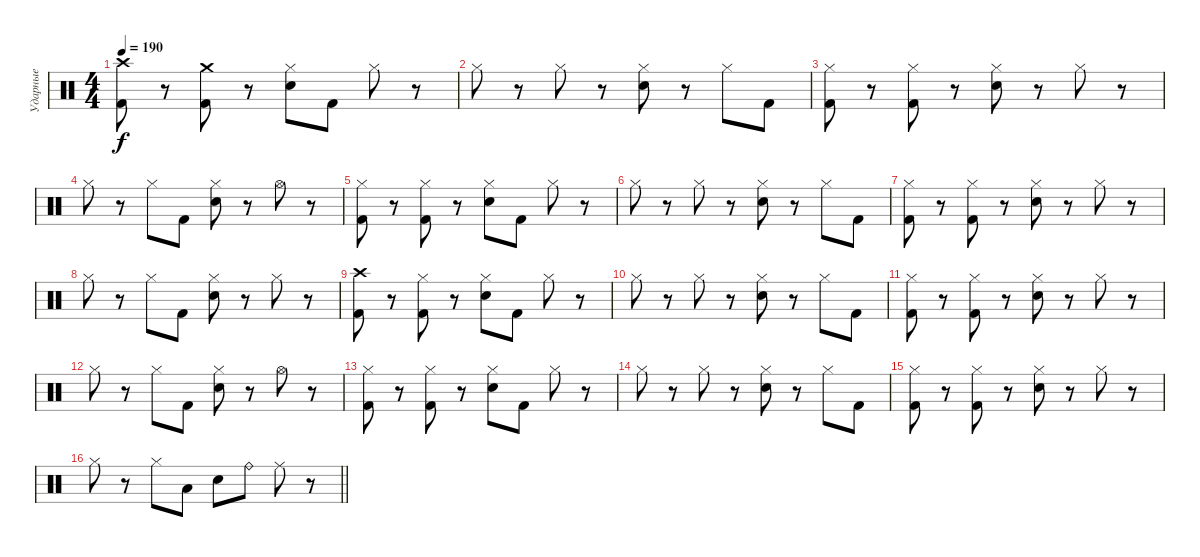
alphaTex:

\track ("Ударные" "Ударные") {instrument percussion}
\staff {score}
\articulation defaults
\ts (4 4)
\tempo 190
\clef neutral
\ks c
("Crash high (hit)" "Kick (hit) 2").8{dy f} r.8 ("Crash medium (hit)" "Kick (hit) 2").8 r.8 ("Hi-Hat (closed)" "Snare (hit) 2").8 "Kick (hit) 2".8 "Hi-Hat (closed)".8 r.8 |
"Hi-Hat (closed)".8 r.8 "Hi-Hat (closed)".8 r.8 ("Hi-Hat (closed)" "Snare (hit) 2").8 r.8 "Hi-Hat (closed)".8 "Kick (hit) 2".8 |
("Hi-Hat (closed)" "Kick (hit) 2").8 r.8 ("Hi-Hat (closed)" "Kick (hit) 2").8 r.8 ("Hi-Hat (closed)" "Snare (hit) 2").8 r.8 "Hi-Hat (closed)".8 r.8 |
"Hi-Hat (closed)".8 r.8 "Hi-Hat (closed)".8 "Kick (hit) 2".8 ("Hi-Hat (closed)" "Snare (hit) 2").8 r.8 "Hi-Hat (open)".8 r.8 |
("Hi-Hat (closed)" "Kick (hit) 2").8 r.8 ("Hi-Hat (closed)" "Kick (hit) 2").8 r.8 ("Hi-Hat (closed)" "Snare (hit) 2").8 "Kick (hit) 2".8 "Hi-Hat (closed)".8 r.8 |
"Hi-Hat (closed)".8 r.8 "Hi-Hat (closed)".8 r.8 ("Hi-Hat (closed)" "Snare (hit) 2").8 r.8 "Hi-Hat (closed)".8 "Kick (hit) 2".8 |
("Hi-Hat (closed)" "Kick (hit) 2").8 r.8 ("Hi-Hat (closed)" "Kick (hit) 2").8 r.8 ("Hi-Hat (closed)" "Snare (hit) 2").8 r.8 "Hi-Hat (closed)".8 r.8 |
"Hi-Hat (closed)".8 r.8 "Hi-Hat (closed)".8 "Kick (hit) 2".8 ("Hi-Hat (closed)" "Snare (hit) 2").8 r.8 "Hi-Hat (closed)".8 r.8 |
("Crash high (hit)" "Kick (hit) 2").8 r.8 ("Hi-Hat (closed)" "Kick (hit) 2").8 r.8 ("Hi-Hat (closed)" "Snare (hit) 2").8 "Kick (hit) 2".8 "Hi-Hat (closed)".8 r.8 |
"Hi-Hat (closed)".8 r.8 "Hi-Hat (closed)".8 r.8 ("Hi-Hat (closed)" "Snare (hit) 2").8 r.8 "Hi-Hat (closed)".8 "Kick (hit) 2".8 |
("Hi-Hat (closed)" "Kick (hit) 2").8 r.8 ("Hi-Hat (closed)" "Kick (hit) 2").8 r.8 ("Hi-Hat (closed)" "Snare (hit) 2").8 r.8 "Hi-Hat (closed)".8 r.8 |
"Hi-Hat (closed)".8 r.8 "Hi-Hat (closed)".8 "Kick (hit) 2".8 ("Hi-Hat (closed)" "Snare (hit) 2").8 r.8 "Hi-Hat (open)".8 r.8 |
("Hi-Hat (closed)" "Kick (hit) 2").8 r.8 ("Hi-Hat (closed)" "Kick (hit) 2").8 r.8 ("Hi-Hat (closed)" "Snare (hit) 2").8 "Kick (hit) 2".8 "Hi-Hat (closed)".8 r.8 |
"Hi-Hat (closed)".8 r.8 "Hi-Hat (closed)".8 r.8 ("Hi-Hat (closed)" "Snare (hit) 2").8 r.8 "Hi-Hat (closed)".8 "Kick (hit) 2".8 |
("Hi-Hat (closed)" "Kick (hit) 2").8 r.8 ("Hi-Hat (closed)" "Kick (hit) 2").8 r.8 ("Hi-Hat (closed)" "Snare (hit) 2").8 r.8 "Hi-Hat (closed)".8 r.8 |
\barLineRight lightlight "Hi-Hat (closed)".8
r.8 "Hi-Hat (closed)".8 "Low Tom (hit)".8 "Snare (hit) 2".8 "Ride (bell)".8 "Ride (middle)".8 r.8
